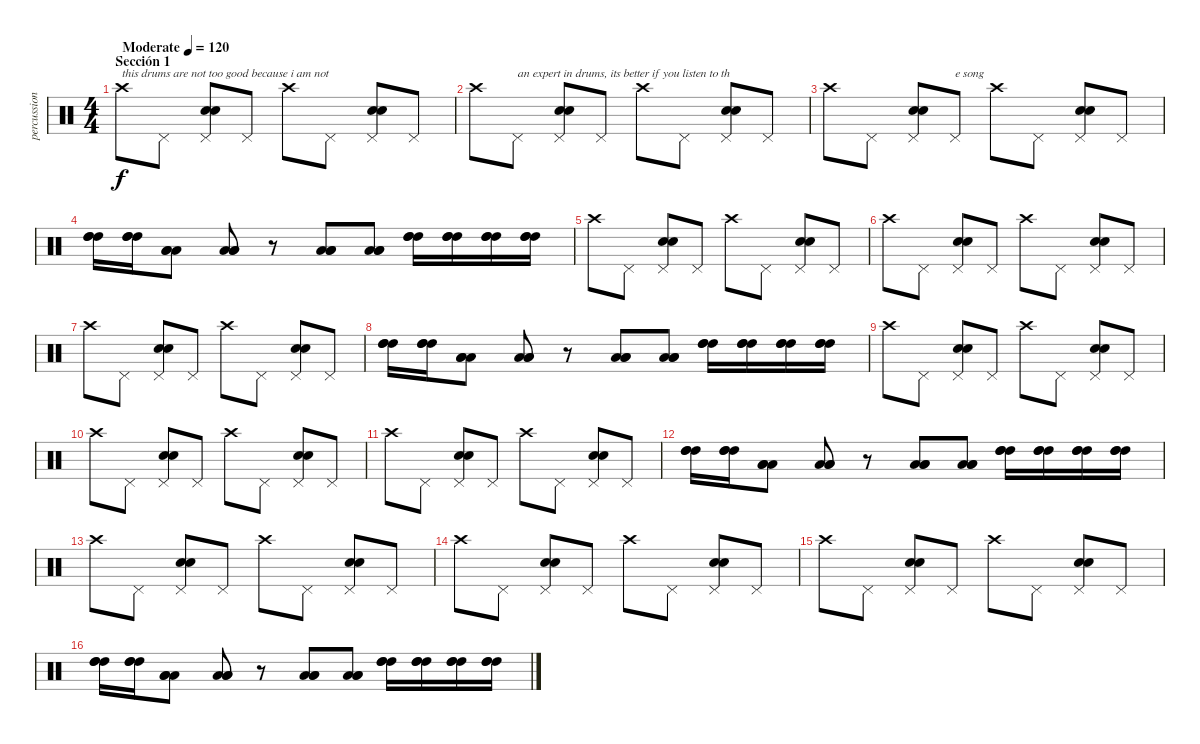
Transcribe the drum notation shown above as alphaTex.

\track ("percussion" "percussion") {instrument percussion}
\staff {score}
\articulation defaults
\ts (4 4)
\section ("" "Sección 1")
\tempo (120 "Moderate")
\clef neutral
\ks c "Crash high (hit)".8{txt "this drums are not too good because i am not " dy f} "Pedal Hi-Hat (hit)".8
("Pedal Hi-Hat (hit)" "Snare (hit) 2" "Snare (hit) 2").8 "Pedal Hi-Hat (hit)".8 "Crash high (hit)".8 "Pedal Hi-Hat (hit)".8 ("Pedal Hi-Hat (hit)" "Snare (hit) 2" "Snare (hit) 2").8 "Pedal Hi-Hat (hit)".8 |
"Crash high (hit)".8 "Pedal Hi-Hat (hit)".8{txt "an expert in drums, its better if you listen to th"} ("Pedal Hi-Hat (hit)" "Snare (hit) 2" "Snare (hit) 2").8 "Pedal Hi-Hat (hit)".8 "Crash high (hit)".8 "Pedal Hi-Hat (hit)".8 ("Pedal Hi-Hat (hit)" "Snare (hit) 2" "Snare (hit) 2").8 "Pedal Hi-Hat (hit)".8 |
"Crash high (hit)".8 "Pedal Hi-Hat (hit)".8 ("Pedal Hi-Hat (hit)" "Snare (hit) 2" "Snare (hit) 2").8 "Pedal Hi-Hat (hit)".8{txt "e song"} "Crash high (hit)".8 "Pedal Hi-Hat (hit)".8 ("Pedal Hi-Hat (hit)" "Snare (hit) 2" "Snare (hit) 2").8 "Pedal Hi-Hat (hit)".8 |
("High Tom (hit)" "High Tom (hit)" "High Tom (hit)").16 ("High Tom (hit)" "High Tom (hit)" "High Tom (hit)").16 ("Low Tom (hit)" "Low Tom (hit)" "Low Tom (hit)").8 ("Low Tom (hit)" "Low Tom (hit)" "Low Tom (hit)").8 r.8 ("Low Tom (hit)" "Low Tom (hit)" "Low Tom (hit)").8 ("Low Tom (hit)" "Low Tom (hit)" "Low Tom (hit)").8 ("High Tom (hit)" "High Tom (hit)" "High Tom (hit)").16 ("High Tom (hit)" "High Tom (hit)" "High Tom (hit)").16 ("High Tom (hit)" "High Tom (hit)" "High Tom (hit)").16 ("High Tom (hit)" "High Tom (hit)" "High Tom (hit)").16 |
"Crash high (hit)".8 "Pedal Hi-Hat (hit)".8 ("Pedal Hi-Hat (hit)" "Snare (hit) 2" "Snare (hit) 2").8 "Pedal Hi-Hat (hit)".8 "Crash high (hit)".8 "Pedal Hi-Hat (hit)".8 ("Pedal Hi-Hat (hit)" "Snare (hit) 2" "Snare (hit) 2").8 "Pedal Hi-Hat (hit)".8 |
"Crash high (hit)".8 "Pedal Hi-Hat (hit)".8 ("Pedal Hi-Hat (hit)" "Snare (hit) 2" "Snare (hit) 2").8 "Pedal Hi-Hat (hit)".8 "Crash high (hit)".8 "Pedal Hi-Hat (hit)".8 ("Pedal Hi-Hat (hit)" "Snare (hit) 2" "Snare (hit) 2").8 "Pedal Hi-Hat (hit)".8 |
"Crash high (hit)".8 "Pedal Hi-Hat (hit)".8 ("Pedal Hi-Hat (hit)" "Snare (hit) 2" "Snare (hit) 2").8 "Pedal Hi-Hat (hit)".8 "Crash high (hit)".8 "Pedal Hi-Hat (hit)".8 ("Pedal Hi-Hat (hit)" "Snare (hit) 2" "Snare (hit) 2").8 "Pedal Hi-Hat (hit)".8 |
("High Tom (hit)" "High Tom (hit)" "High Tom (hit)").16 ("High Tom (hit)" "High Tom (hit)" "High Tom (hit)").16 ("Low Tom (hit)" "Low Tom (hit)" "Low Tom (hit)").8 ("Low Tom (hit)" "Low Tom (hit)" "Low Tom (hit)").8 r.8 ("Low Tom (hit)" "Low Tom (hit)" "Low Tom (hit)").8 ("Low Tom (hit)" "Low Tom (hit)" "Low Tom (hit)").8 ("High Tom (hit)" "High Tom (hit)" "High Tom (hit)").16 ("High Tom (hit)" "High Tom (hit)" "High Tom (hit)").16 ("High Tom (hit)" "High Tom (hit)" "High Tom (hit)").16 ("High Tom (hit)" "High Tom (hit)" "High Tom (hit)").16 |
"Crash high (hit)".8 "Pedal Hi-Hat (hit)".8 ("Pedal Hi-Hat (hit)" "Snare (hit) 2" "Snare (hit) 2").8 "Pedal Hi-Hat (hit)".8 "Crash high (hit)".8 "Pedal Hi-Hat (hit)".8 ("Pedal Hi-Hat (hit)" "Snare (hit) 2" "Snare (hit) 2").8 "Pedal Hi-Hat (hit)".8 |
"Crash high (hit)".8 "Pedal Hi-Hat (hit)".8 ("Pedal Hi-Hat (hit)" "Snare (hit) 2" "Snare (hit) 2").8 "Pedal Hi-Hat (hit)".8 "Crash high (hit)".8 "Pedal Hi-Hat (hit)".8 ("Pedal Hi-Hat (hit)" "Snare (hit) 2" "Snare (hit) 2").8 "Pedal Hi-Hat (hit)".8 |
"Crash high (hit)".8 "Pedal Hi-Hat (hit)".8 ("Pedal Hi-Hat (hit)" "Snare (hit) 2" "Snare (hit) 2").8 "Pedal Hi-Hat (hit)".8 "Crash high (hit)".8 "Pedal Hi-Hat (hit)".8 ("Pedal Hi-Hat (hit)" "Snare (hit) 2" "Snare (hit) 2").8 "Pedal Hi-Hat (hit)".8 |
("High Tom (hit)" "High Tom (hit)" "High Tom (hit)").16 ("High Tom (hit)" "High Tom (hit)" "High Tom (hit)").16 ("Low Tom (hit)" "Low Tom (hit)" "Low Tom (hit)").8 ("Low Tom (hit)" "Low Tom (hit)" "Low Tom (hit)").8 r.8 ("Low Tom (hit)" "Low Tom (hit)" "Low Tom (hit)").8 ("Low Tom (hit)" "Low Tom (hit)" "Low Tom (hit)").8 ("High Tom (hit)" "High Tom (hit)" "High Tom (hit)").16 ("High Tom (hit)" "High Tom (hit)" "High Tom (hit)").16 ("High Tom (hit)" "High Tom (hit)" "High Tom (hit)").16 ("High Tom (hit)" "High Tom (hit)" "High Tom (hit)").16 |
"Crash high (hit)".8 "Pedal Hi-Hat (hit)".8 ("Pedal Hi-Hat (hit)" "Snare (hit) 2" "Snare (hit) 2").8 "Pedal Hi-Hat (hit)".8 "Crash high (hit)".8 "Pedal Hi-Hat (hit)".8 ("Pedal Hi-Hat (hit)" "Snare (hit) 2" "Snare (hit) 2").8 "Pedal Hi-Hat (hit)".8 |
"Crash high (hit)".8 "Pedal Hi-Hat (hit)".8 ("Pedal Hi-Hat (hit)" "Snare (hit) 2" "Snare (hit) 2").8 "Pedal Hi-Hat (hit)".8 "Crash high (hit)".8 "Pedal Hi-Hat (hit)".8 ("Pedal Hi-Hat (hit)" "Snare (hit) 2" "Snare (hit) 2").8 "Pedal Hi-Hat (hit)".8 |
"Crash high (hit)".8 "Pedal Hi-Hat (hit)".8 ("Pedal Hi-Hat (hit)" "Snare (hit) 2" "Snare (hit) 2").8 "Pedal Hi-Hat (hit)".8 "Crash high (hit)".8 "Pedal Hi-Hat (hit)".8 ("Pedal Hi-Hat (hit)" "Snare (hit) 2" "Snare (hit) 2").8 "Pedal Hi-Hat (hit)".8 |
("High Tom (hit)" "High Tom (hit)" "High Tom (hit)").16 ("High Tom (hit)" "High Tom (hit)" "High Tom (hit)").16 ("Low Tom (hit)" "Low Tom (hit)" "Low Tom (hit)").8 ("Low Tom (hit)" "Low Tom (hit)" "Low Tom (hit)").8 r.8 ("Low Tom (hit)" "Low Tom (hit)" "Low Tom (hit)").8 ("Low Tom (hit)" "Low Tom (hit)" "Low Tom (hit)").8 ("High Tom (hit)" "High Tom (hit)" "High Tom (hit)").16 ("High Tom (hit)" "High Tom (hit)" "High Tom (hit)").16 ("High Tom (hit)" "High Tom (hit)" "High Tom (hit)").16 ("High Tom (hit)" "High Tom (hit)" "High Tom (hit)").16
